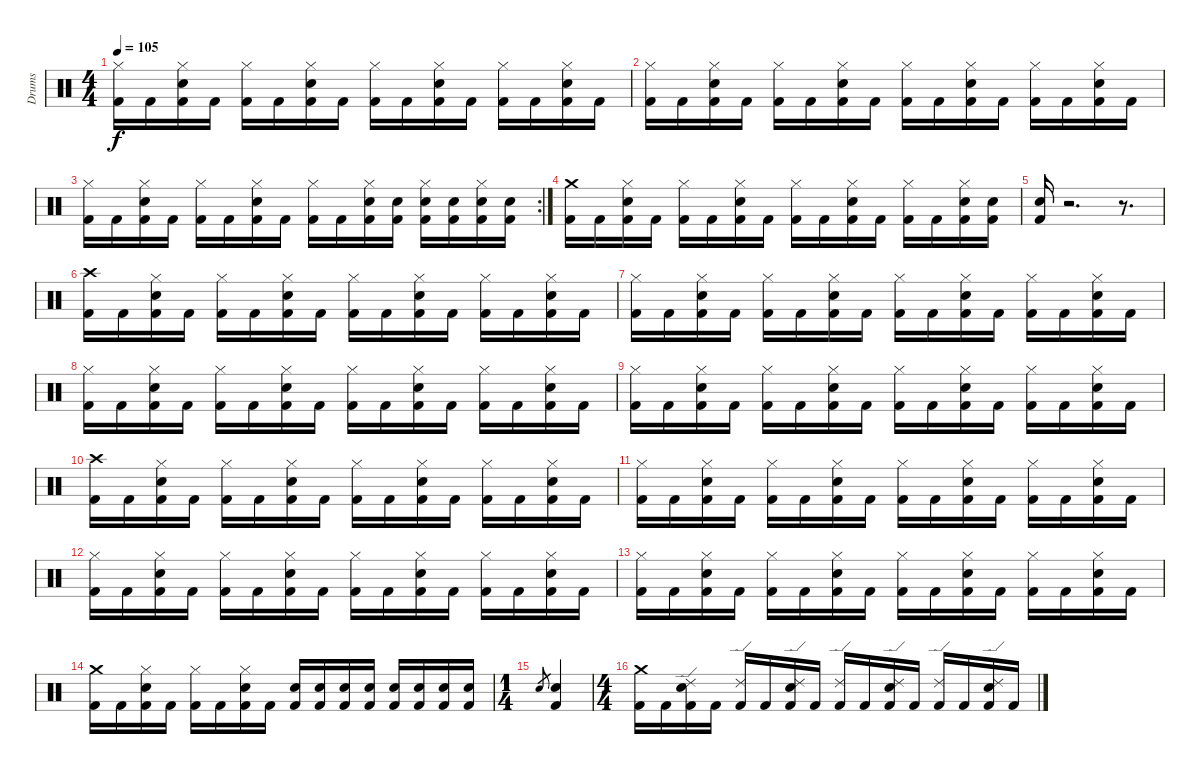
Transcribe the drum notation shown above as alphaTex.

\track ("Drums" "Drums") {instrument percussion}
\staff {score}
\articulation defaults
\ts (4 4)
\tempo 105
\clef neutral
\ks c
("Hi-Hat (closed)" "Kick (hit) 2").16{dy f} "Kick (hit) 2".16 ("Hi-Hat (closed)" "Electric Snare (hit)" "Kick (hit) 2").16 "Kick (hit) 2".16 ("Hi-Hat (closed)" "Kick (hit) 2").16 "Kick (hit) 2".16 ("Hi-Hat (closed)" "Electric Snare (hit)" "Kick (hit) 2").16 "Kick (hit) 2".16 ("Hi-Hat (closed)" "Kick (hit) 2").16 "Kick (hit) 2".16 ("Hi-Hat (closed)" "Electric Snare (hit)" "Kick (hit) 2").16 "Kick (hit) 2".16 ("Hi-Hat (closed)" "Kick (hit) 2").16 "Kick (hit) 2".16 ("Hi-Hat (closed)" "Electric Snare (hit)" "Kick (hit) 2").16 "Kick (hit) 2".16 |
("Hi-Hat (closed)" "Kick (hit) 2").16 "Kick (hit) 2".16 ("Hi-Hat (closed)" "Electric Snare (hit)" "Kick (hit) 2").16 "Kick (hit) 2".16 ("Hi-Hat (closed)" "Kick (hit) 2").16 "Kick (hit) 2".16 ("Hi-Hat (closed)" "Electric Snare (hit)" "Kick (hit) 2").16 "Kick (hit) 2".16 ("Hi-Hat (closed)" "Kick (hit) 2").16 "Kick (hit) 2".16 ("Hi-Hat (closed)" "Electric Snare (hit)" "Kick (hit) 2").16 "Kick (hit) 2".16 ("Hi-Hat (closed)" "Kick (hit) 2").16 "Kick (hit) 2".16 ("Hi-Hat (closed)" "Electric Snare (hit)" "Kick (hit) 2").16 "Kick (hit) 2".16 |
\rc 2
("Hi-Hat (closed)" "Kick (hit) 2").16 "Kick (hit) 2".16 ("Hi-Hat (closed)" "Electric Snare (hit)" "Kick (hit) 2").16 "Kick (hit) 2".16 ("Hi-Hat (closed)" "Kick (hit) 2").16 "Kick (hit) 2".16 ("Hi-Hat (closed)" "Electric Snare (hit)" "Kick (hit) 2").16 "Kick (hit) 2".16 ("Hi-Hat (closed)" "Kick (hit) 2").16 "Kick (hit) 2".16 ("Hi-Hat (closed)" "Electric Snare (hit)" "Kick (hit) 2").16 ("Electric Snare (hit)" "Kick (hit) 2").16 ("Hi-Hat (closed)" "Electric Snare (hit)" "Kick (hit) 2").16 ("Electric Snare (hit)" "Kick (hit) 2").16 ("Hi-Hat (closed)" "Electric Snare (hit)" "Kick (hit) 2").16 ("Electric Snare (hit)" "Kick (hit) 2").16 |
("Crash medium (hit)" "Kick (hit) 2").16 "Kick (hit) 2".16 ("Hi-Hat (closed)" "Electric Snare (hit)" "Kick (hit) 2").16 "Kick (hit) 2".16 ("Hi-Hat (closed)" "Kick (hit) 2").16 "Kick (hit) 2".16 ("Hi-Hat (closed)" "Electric Snare (hit)" "Kick (hit) 2").16 "Kick (hit) 2".16 ("Hi-Hat (closed)" "Kick (hit) 2").16 "Kick (hit) 2".16 ("Hi-Hat (closed)" "Electric Snare (hit)" "Kick (hit) 2").16 "Kick (hit) 2".16 ("Hi-Hat (closed)" "Kick (hit) 2").16 "Kick (hit) 2".16 ("Hi-Hat (closed)" "Electric Snare (hit)" "Kick (hit) 2").16 ("Electric Snare (hit)" "Kick (hit) 2").16 |
("Electric Snare (hit)" "Kick (hit) 2").16 r.2{d} r.8{d} |
("Crash high (hit)" "Kick (hit) 2").16 "Kick (hit) 2".16 ("Hi-Hat (closed)" "Electric Snare (hit)" "Kick (hit) 2").16 "Kick (hit) 2".16 ("Hi-Hat (closed)" "Kick (hit) 2").16 "Kick (hit) 2".16 ("Hi-Hat (closed)" "Electric Snare (hit)" "Kick (hit) 2").16 "Kick (hit) 2".16 ("Hi-Hat (closed)" "Kick (hit) 2").16 "Kick (hit) 2".16 ("Hi-Hat (closed)" "Electric Snare (hit)" "Kick (hit) 2").16 "Kick (hit) 2".16 ("Hi-Hat (closed)" "Kick (hit) 2").16 "Kick (hit) 2".16 ("Hi-Hat (closed)" "Electric Snare (hit)" "Kick (hit) 2").16 "Kick (hit) 2".16 |
("Hi-Hat (closed)" "Kick (hit) 2").16 "Kick (hit) 2".16 ("Hi-Hat (closed)" "Electric Snare (hit)" "Kick (hit) 2").16 "Kick (hit) 2".16 ("Hi-Hat (closed)" "Kick (hit) 2").16 "Kick (hit) 2".16 ("Hi-Hat (closed)" "Electric Snare (hit)" "Kick (hit) 2").16 "Kick (hit) 2".16 ("Hi-Hat (closed)" "Kick (hit) 2").16 "Kick (hit) 2".16 ("Hi-Hat (closed)" "Electric Snare (hit)" "Kick (hit) 2").16 "Kick (hit) 2".16 ("Hi-Hat (closed)" "Kick (hit) 2").16 "Kick (hit) 2".16 ("Hi-Hat (closed)" "Electric Snare (hit)" "Kick (hit) 2").16 "Kick (hit) 2".16 |
("Hi-Hat (closed)" "Kick (hit) 2").16 "Kick (hit) 2".16 ("Hi-Hat (closed)" "Electric Snare (hit)" "Kick (hit) 2").16 "Kick (hit) 2".16 ("Hi-Hat (closed)" "Kick (hit) 2").16 "Kick (hit) 2".16 ("Hi-Hat (closed)" "Electric Snare (hit)" "Kick (hit) 2").16 "Kick (hit) 2".16 ("Hi-Hat (closed)" "Kick (hit) 2").16 "Kick (hit) 2".16 ("Hi-Hat (closed)" "Electric Snare (hit)" "Kick (hit) 2").16 "Kick (hit) 2".16 ("Hi-Hat (closed)" "Kick (hit) 2").16 "Kick (hit) 2".16 ("Hi-Hat (closed)" "Electric Snare (hit)" "Kick (hit) 2").16 "Kick (hit) 2".16 |
("Hi-Hat (closed)" "Kick (hit) 2").16 "Kick (hit) 2".16 ("Hi-Hat (closed)" "Electric Snare (hit)" "Kick (hit) 2").16 "Kick (hit) 2".16 ("Hi-Hat (closed)" "Kick (hit) 2").16 "Kick (hit) 2".16 ("Hi-Hat (closed)" "Electric Snare (hit)" "Kick (hit) 2").16 "Kick (hit) 2".16 ("Hi-Hat (closed)" "Kick (hit) 2").16 "Kick (hit) 2".16 ("Hi-Hat (closed)" "Electric Snare (hit)" "Kick (hit) 2").16 "Kick (hit) 2".16 ("Hi-Hat (closed)" "Kick (hit) 2").16 "Kick (hit) 2".16 ("Hi-Hat (closed)" "Electric Snare (hit)" "Kick (hit) 2").16 "Kick (hit) 2".16 |
("Crash high (hit)" "Kick (hit) 2").16 "Kick (hit) 2".16 ("Hi-Hat (closed)" "Electric Snare (hit)" "Kick (hit) 2").16 "Kick (hit) 2".16 ("Hi-Hat (closed)" "Kick (hit) 2").16 "Kick (hit) 2".16 ("Hi-Hat (closed)" "Electric Snare (hit)" "Kick (hit) 2").16 "Kick (hit) 2".16 ("Hi-Hat (closed)" "Kick (hit) 2").16 "Kick (hit) 2".16 ("Hi-Hat (closed)" "Electric Snare (hit)" "Kick (hit) 2").16 "Kick (hit) 2".16 ("Hi-Hat (closed)" "Kick (hit) 2").16 "Kick (hit) 2".16 ("Hi-Hat (closed)" "Electric Snare (hit)" "Kick (hit) 2").16 "Kick (hit) 2".16 |
("Hi-Hat (closed)" "Kick (hit) 2").16 "Kick (hit) 2".16 ("Hi-Hat (closed)" "Electric Snare (hit)" "Kick (hit) 2").16 "Kick (hit) 2".16 ("Hi-Hat (closed)" "Kick (hit) 2").16 "Kick (hit) 2".16 ("Hi-Hat (closed)" "Electric Snare (hit)" "Kick (hit) 2").16 "Kick (hit) 2".16 ("Hi-Hat (closed)" "Kick (hit) 2").16 "Kick (hit) 2".16 ("Hi-Hat (closed)" "Electric Snare (hit)" "Kick (hit) 2").16 "Kick (hit) 2".16 ("Hi-Hat (closed)" "Kick (hit) 2").16 "Kick (hit) 2".16 ("Hi-Hat (closed)" "Electric Snare (hit)" "Kick (hit) 2").16 "Kick (hit) 2".16 |
("Hi-Hat (closed)" "Kick (hit) 2").16 "Kick (hit) 2".16 ("Hi-Hat (closed)" "Electric Snare (hit)" "Kick (hit) 2").16 "Kick (hit) 2".16 ("Hi-Hat (closed)" "Kick (hit) 2").16 "Kick (hit) 2".16 ("Hi-Hat (closed)" "Electric Snare (hit)" "Kick (hit) 2").16 "Kick (hit) 2".16 ("Hi-Hat (closed)" "Kick (hit) 2").16 "Kick (hit) 2".16 ("Hi-Hat (closed)" "Electric Snare (hit)" "Kick (hit) 2").16 "Kick (hit) 2".16 ("Hi-Hat (closed)" "Kick (hit) 2").16 "Kick (hit) 2".16 ("Hi-Hat (closed)" "Electric Snare (hit)" "Kick (hit) 2").16 "Kick (hit) 2".16 |
("Hi-Hat (closed)" "Kick (hit) 2").16 "Kick (hit) 2".16 ("Hi-Hat (closed)" "Electric Snare (hit)" "Kick (hit) 2").16 "Kick (hit) 2".16 ("Hi-Hat (closed)" "Kick (hit) 2").16 "Kick (hit) 2".16 ("Hi-Hat (closed)" "Electric Snare (hit)" "Kick (hit) 2").16 "Kick (hit) 2".16 ("Hi-Hat (closed)" "Kick (hit) 2").16 "Kick (hit) 2".16 ("Hi-Hat (closed)" "Electric Snare (hit)" "Kick (hit) 2").16 "Kick (hit) 2".16 ("Hi-Hat (closed)" "Kick (hit) 2").16 "Kick (hit) 2".16 ("Hi-Hat (closed)" "Electric Snare (hit)" "Kick (hit) 2").16 "Kick (hit) 2".16 |
("Crash medium (hit)" "Kick (hit) 2").16 "Kick (hit) 2".16 ("Hi-Hat (closed)" "Electric Snare (hit)" "Kick (hit) 2").16 "Kick (hit) 2".16 ("Hi-Hat (closed)" "Kick (hit) 2").16 "Kick (hit) 2".16 ("Hi-Hat (closed)" "Electric Snare (hit)" "Kick (hit) 2").16 "Kick (hit) 2".16 ("Electric Snare (hit)" "Kick (hit) 2").16 ("Electric Snare (hit)" "Kick (hit) 2").16 ("Electric Snare (hit)" "Kick (hit) 2").16 ("Electric Snare (hit)" "Kick (hit) 2").16 ("Electric Snare (hit)" "Kick (hit) 2").16 ("Electric Snare (hit)" "Kick (hit) 2").16 ("Electric Snare (hit)" "Kick (hit) 2").16 ("Electric Snare (hit)" "Kick (hit) 2").16 |
\ts (1 4)
"Electric Snare (hit)".8{gr} ("Electric Snare (hit)" "Kick (hit) 2").4 |
\ts (4 4)
("Crash medium (hit)" "Kick (hit) 2").16 "Kick (hit) 2".16 ("Ride (edge) 2" "Electric Snare (hit)" "Kick (hit) 2").16 "Kick (hit) 2".16 ("Ride (edge) 2" "Kick (hit) 2").16 "Kick (hit) 2".16 ("Ride (edge) 2" "Electric Snare (hit)" "Kick (hit) 2").16 "Kick (hit) 2".16 ("Ride (edge) 2" "Kick (hit) 2").16 "Kick (hit) 2".16 ("Ride (edge) 2" "Electric Snare (hit)" "Kick (hit) 2").16 "Kick (hit) 2".16 ("Ride (edge) 2" "Kick (hit) 2").16 "Kick (hit) 2".16 ("Ride (edge) 2" "Electric Snare (hit)" "Kick (hit) 2").16 "Kick (hit) 2".16
